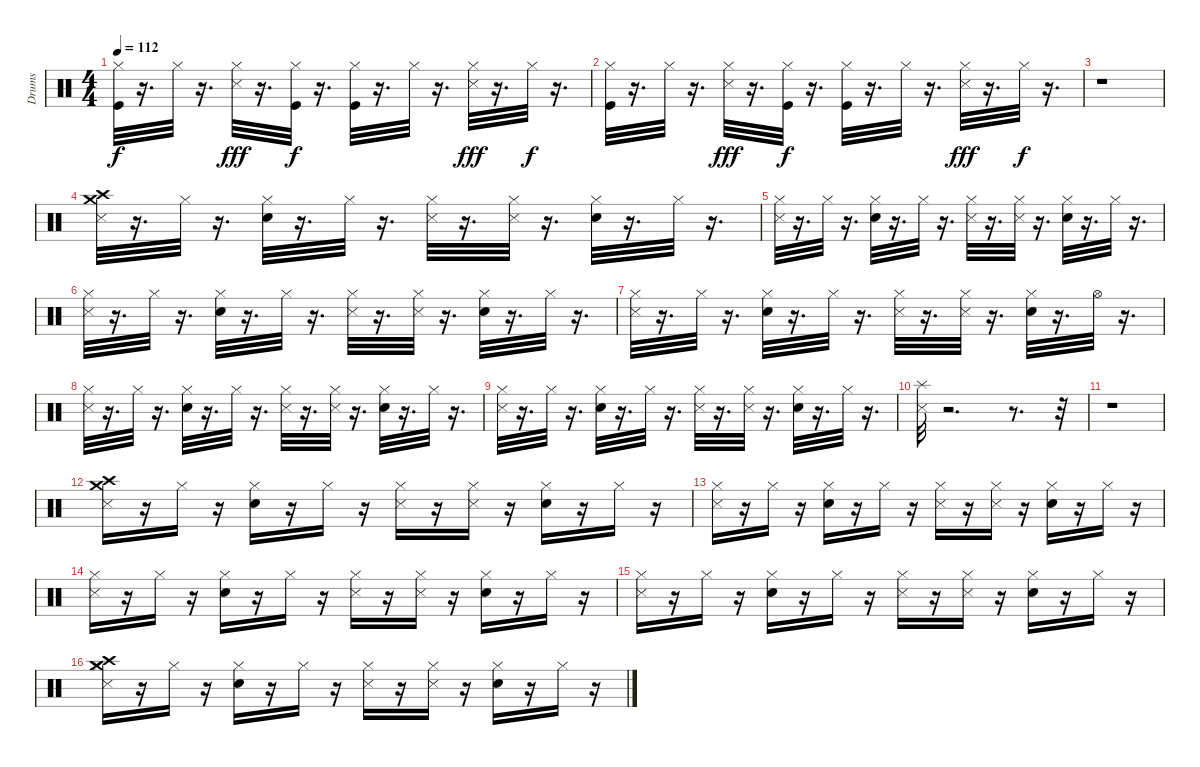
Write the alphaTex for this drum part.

\track ("Drums" "Drums") {instrument percussion}
\staff {score}
\articulation defaults
\ts (4 4)
\tempo 112
\clef neutral
\ks c
("Kick (hit)" "Hi-Hat (closed)").32{dy f} r.16{d} "Hi-Hat (closed)".32 r.16{d} ("Snare (side stick) 3" "Hi-Hat (closed)").32{dy fff} r.16{d} ("Hi-Hat (closed)" "Kick (hit)").32{dy f} r.16{d} ("Hi-Hat (closed)" "Kick (hit)").32 r.16{d} "Hi-Hat (closed)".32 r.16{d} ("Hi-Hat (closed)" "Snare (side stick) 3").32{dy fff} r.16{d} "Hi-Hat (closed)".32{dy f} r.16{d} |
("Kick (hit)" "Hi-Hat (closed)").32 r.16{d} "Hi-Hat (closed)".32 r.16{d} ("Snare (side stick) 3" "Hi-Hat (closed)").32{dy fff} r.16{d} ("Hi-Hat (closed)" "Kick (hit)").32{dy f} r.16{d} ("Hi-Hat (closed)" "Kick (hit)").32 r.16{d} "Hi-Hat (closed)".32 r.16{d} ("Hi-Hat (closed)" "Snare (side stick) 3").32{dy fff} r.16{d} "Hi-Hat (closed)".32{dy f} r.16{d} |
r.1 |
("Crash medium (hit)" "Crash high (hit)" "Metronome (hit)").32 r.16{d} "Hi-Hat (closed)".32 r.16{d} ("Hi-Hat (closed)" "Electric Snare (hit)").32 r.16{d} "Hi-Hat (closed)".32 r.16{d} ("Hi-Hat (closed)" "Metronome (hit)").32 r.16{d} ("Hi-Hat (closed)" "Metronome (hit)").32 r.16{d} ("Hi-Hat (closed)" "Electric Snare (hit)").32 r.16{d} "Hi-Hat (closed)".32 r.16{d} |
("Hi-Hat (closed)" "Metronome (hit)").32 r.16{d} "Hi-Hat (closed)".32 r.16{d} ("Hi-Hat (closed)" "Electric Snare (hit)").32 r.16{d} "Hi-Hat (closed)".32 r.16{d} ("Hi-Hat (closed)" "Metronome (hit)").32 r.16{d} ("Hi-Hat (closed)" "Metronome (hit)").32 r.16{d} ("Hi-Hat (closed)" "Electric Snare (hit)").32 r.16{d} "Hi-Hat (closed)".32 r.16{d} |
("Hi-Hat (closed)" "Metronome (hit)").32 r.16{d} "Hi-Hat (closed)".32 r.16{d} ("Hi-Hat (closed)" "Electric Snare (hit)").32 r.16{d} "Hi-Hat (closed)".32 r.16{d} ("Hi-Hat (closed)" "Metronome (hit)").32 r.16{d} ("Hi-Hat (closed)" "Metronome (hit)").32 r.16{d} ("Hi-Hat (closed)" "Electric Snare (hit)").32 r.16{d} "Hi-Hat (closed)".32 r.16{d} |
("Hi-Hat (closed)" "Metronome (hit)").32 r.16{d} "Hi-Hat (closed)".32 r.16{d} ("Hi-Hat (closed)" "Electric Snare (hit)").32 r.16{d} "Hi-Hat (closed)".32 r.16{d} ("Hi-Hat (closed)" "Metronome (hit)").32 r.16{d} ("Hi-Hat (closed)" "Metronome (hit)").32 r.16{d} ("Hi-Hat (closed)" "Electric Snare (hit)").32 r.16{d} "Hi-Hat (open)".32 r.16{d} |
("Hi-Hat (closed)" "Metronome (hit)").32 r.16{d} "Hi-Hat (closed)".32 r.16{d} ("Hi-Hat (closed)" "Electric Snare (hit)").32 r.16{d} "Hi-Hat (closed)".32 r.16{d} ("Hi-Hat (closed)" "Metronome (hit)").32 r.16{d} ("Hi-Hat (closed)" "Metronome (hit)").32 r.16{d} ("Hi-Hat (closed)" "Electric Snare (hit)").32 r.16{d} "Hi-Hat (closed)".32 r.16{d} |
("Hi-Hat (closed)" "Metronome (hit)").32 r.16{d} "Hi-Hat (closed)".32 r.16{d} ("Hi-Hat (closed)" "Electric Snare (hit)").32 r.16{d} "Hi-Hat (closed)".32 r.16{d} ("Hi-Hat (closed)" "Metronome (hit)").32 r.16{d} ("Hi-Hat (closed)" "Metronome (hit)").32 r.16{d} ("Hi-Hat (closed)" "Electric Snare (hit)").32 r.16{d} "Hi-Hat (closed)".32 r.16{d} |
("Splash (hit)" "Metronome (hit)").32 r.2{d} r.8{d} r.32 |
r.1 |
("Crash medium (hit)" "Crash high (hit)" "Metronome (hit)").16 r.16 "Hi-Hat (closed)".16 r.16 ("Hi-Hat (closed)" "Electric Snare (hit)").16 r.16 "Hi-Hat (closed)".16 r.16 ("Hi-Hat (closed)" "Metronome (hit)").16 r.16 ("Hi-Hat (closed)" "Metronome (hit)").16 r.16 ("Hi-Hat (closed)" "Electric Snare (hit)").16 r.16 "Hi-Hat (closed)".16 r.16 |
("Hi-Hat (closed)" "Metronome (hit)").16 r.16 "Hi-Hat (closed)".16 r.16 ("Hi-Hat (closed)" "Electric Snare (hit)").16 r.16 "Hi-Hat (closed)".16 r.16 ("Hi-Hat (closed)" "Metronome (hit)").16 r.16 ("Hi-Hat (closed)" "Metronome (hit)").16 r.16 ("Hi-Hat (closed)" "Electric Snare (hit)").16 r.16 "Hi-Hat (closed)".16 r.16 |
("Hi-Hat (closed)" "Metronome (hit)").16 r.16 "Hi-Hat (closed)".16 r.16 ("Hi-Hat (closed)" "Electric Snare (hit)").16 r.16 "Hi-Hat (closed)".16 r.16 ("Hi-Hat (closed)" "Metronome (hit)").16 r.16 ("Hi-Hat (closed)" "Metronome (hit)").16 r.16 ("Hi-Hat (closed)" "Electric Snare (hit)").16 r.16 "Hi-Hat (closed)".16 r.16 |
("Hi-Hat (closed)" "Metronome (hit)").16 r.16 "Hi-Hat (closed)".16 r.16 ("Hi-Hat (closed)" "Electric Snare (hit)").16 r.16 "Hi-Hat (closed)".16 r.16 ("Hi-Hat (closed)" "Metronome (hit)").16 r.16 ("Hi-Hat (closed)" "Metronome (hit)").16 r.16 ("Hi-Hat (closed)" "Electric Snare (hit)").16 r.16 "Hi-Hat (closed)".16 r.16 |
("Crash high (hit)" "Crash medium (hit)" "Hi-Hat (closed)" "Metronome (hit)").16 r.16 "Hi-Hat (closed)".16 r.16 ("Hi-Hat (closed)" "Electric Snare (hit)").16 r.16 "Hi-Hat (closed)".16 r.16 ("Hi-Hat (closed)" "Metronome (hit)").16 r.16 ("Hi-Hat (closed)" "Metronome (hit)").16 r.16 ("Hi-Hat (closed)" "Electric Snare (hit)").16 r.16 "Hi-Hat (closed)".16 r.16
